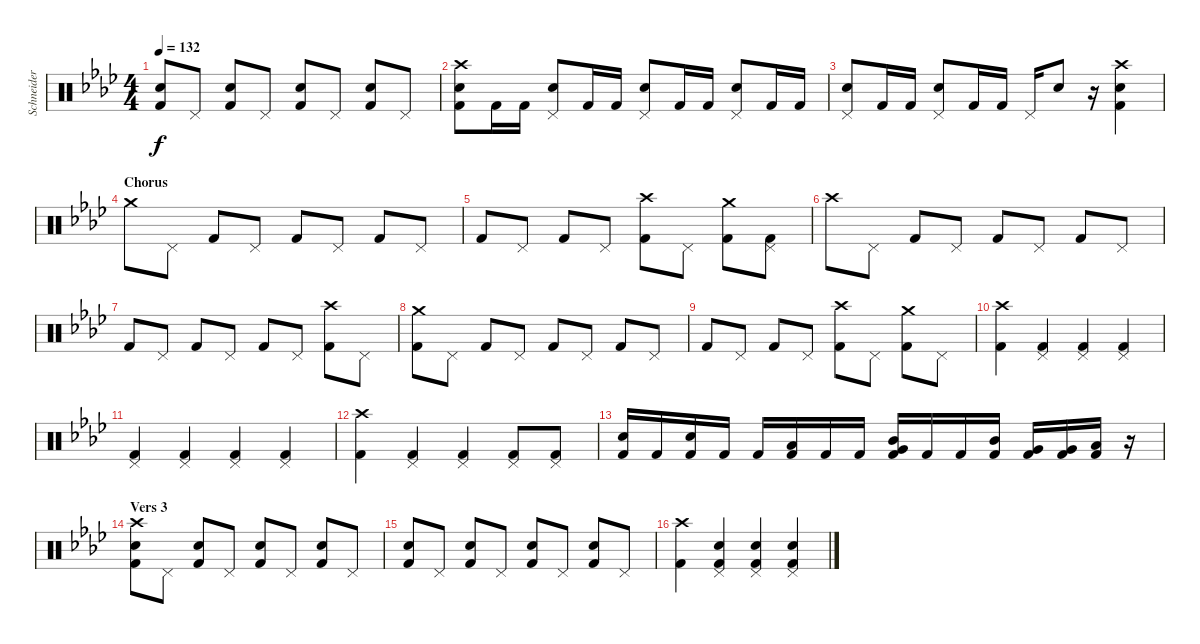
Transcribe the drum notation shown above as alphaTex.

\track ("Schneider" "Schneider") {instrument percussion}
\staff {score}
\articulation defaults
\ts (4 4)
\tempo 132
\clef neutral
\ks fminor
("Snare (hit) 2" "Kick (hit) 2").8{dy f} "Pedal Hi-Hat (hit)".8 ("Snare (hit) 2" "Kick (hit) 2").8 "Pedal Hi-Hat (hit)".8 ("Snare (hit) 2" "Kick (hit) 2").8 "Pedal Hi-Hat (hit)".8 ("Snare (hit) 2" "Kick (hit) 2").8 "Pedal Hi-Hat (hit)".8 |
("Crash high (hit)" "Snare (hit) 2" "Kick (hit) 2").8 "Kick (hit) 2".16 "Kick (hit) 2".16 ("Pedal Hi-Hat (hit)" "Snare (hit) 2").8 "Kick (hit) 2".16 "Kick (hit) 2".16 ("Pedal Hi-Hat (hit)" "Snare (hit) 2").8 "Kick (hit) 2".16 "Kick (hit) 2".16 ("Pedal Hi-Hat (hit)" "Snare (hit) 2").8 "Kick (hit) 2".16 "Kick (hit) 2".16 |
("Pedal Hi-Hat (hit)" "Snare (hit) 2").8 "Kick (hit) 2".16 "Kick (hit) 2".16 ("Pedal Hi-Hat (hit)" "Snare (hit) 2").8 "Kick (hit) 2".16 "Kick (hit) 2".16 "Pedal Hi-Hat (hit)".16 "Snare (hit) 2".8 r.16 ("Crash high (hit)" "Snare (hit) 2" "Kick (hit) 2").4 |
\section ("" "Chorus")
"Crash medium (hit)".8 "Pedal Hi-Hat (hit)".8 "Kick (hit) 2".8 "Pedal Hi-Hat (hit)".8 "Kick (hit) 2".8 "Pedal Hi-Hat (hit)".8 "Kick (hit) 2".8 "Pedal Hi-Hat (hit)".8 |
"Kick (hit) 2".8 "Pedal Hi-Hat (hit)".8 "Kick (hit) 2".8 "Pedal Hi-Hat (hit)".8 ("Crash high (hit)" "Kick (hit) 2").8 "Pedal Hi-Hat (hit)".8 ("Crash medium (hit)" "Kick (hit) 2").8 ("Pedal Hi-Hat (hit)" "Kick (hit) 2").8 |
"Crash high (hit)".8 "Pedal Hi-Hat (hit)".8 "Kick (hit) 2".8 "Pedal Hi-Hat (hit)".8 "Kick (hit) 2".8 "Pedal Hi-Hat (hit)".8 "Kick (hit) 2".8 "Pedal Hi-Hat (hit)".8 |
"Kick (hit) 2".8 "Pedal Hi-Hat (hit)".8 "Kick (hit) 2".8 "Pedal Hi-Hat (hit)".8 "Kick (hit) 2".8 "Pedal Hi-Hat (hit)".8 ("Crash high (hit)" "Kick (hit) 2").8 "Pedal Hi-Hat (hit)".8 |
("Crash medium (hit)" "Kick (hit) 2").8 "Pedal Hi-Hat (hit)".8 "Kick (hit) 2".8 "Pedal Hi-Hat (hit)".8 "Kick (hit) 2".8 "Pedal Hi-Hat (hit)".8 "Kick (hit) 2".8 "Pedal Hi-Hat (hit)".8 |
"Kick (hit) 2".8 "Pedal Hi-Hat (hit)".8 "Kick (hit) 2".8 "Pedal Hi-Hat (hit)".8 ("Crash high (hit)" "Kick (hit) 2").8 "Pedal Hi-Hat (hit)".8 ("Crash medium (hit)" "Kick (hit) 2").8 "Pedal Hi-Hat (hit)".8 |
("Crash high (hit)" "Kick (hit) 2").4 ("Pedal Hi-Hat (hit)" "Kick (hit) 2").4 ("Pedal Hi-Hat (hit)" "Kick (hit) 2").4 ("Pedal Hi-Hat (hit)" "Kick (hit) 2").4 |
("Pedal Hi-Hat (hit)" "Kick (hit) 2").4 ("Pedal Hi-Hat (hit)" "Kick (hit) 2").4 ("Pedal Hi-Hat (hit)" "Kick (hit) 2").4 ("Pedal Hi-Hat (hit)" "Kick (hit) 2").4 |
("Crash high (hit)" "Kick (hit) 2").4 ("Pedal Hi-Hat (hit)" "Kick (hit) 2").4 ("Pedal Hi-Hat (hit)" "Kick (hit) 2").4 ("Pedal Hi-Hat (hit)" "Kick (hit) 2").8 ("Pedal Hi-Hat (hit)" "Kick (hit) 2").8 |
("Snare (hit) 2" "Kick (hit) 2").16 "Kick (hit) 2".16 ("Snare (hit) 2" "Kick (hit) 2").16 "Kick (hit) 2".16 "Kick (hit) 2".16 ("Low Tom (hit)" "Kick (hit) 2").16 "Kick (hit) 2".16 "Kick (hit) 2".16 ("Mid Tom (hit)" "Very Low Tom (hit)" "Kick (hit) 2").16 "Kick (hit) 2".16 "Kick (hit) 2".16 ("Mid Tom (hit)" "Kick (hit) 2").16 ("Very Low Tom (hit)" "Kick (hit) 2").16 ("Very Low Tom (hit)" "Kick (hit) 2").16 ("Low Floor Tom (hit)" "Kick (hit) 2").16 r.16 |
\section ("" "Vers 3")
("Crash high (hit)" "Snare (hit) 2" "Kick (hit) 2").8 "Pedal Hi-Hat (hit)".8 ("Snare (hit) 2" "Kick (hit) 2").8 "Pedal Hi-Hat (hit)".8 ("Snare (hit) 2" "Kick (hit) 2").8 "Pedal Hi-Hat (hit)".8 ("Snare (hit) 2" "Kick (hit) 2").8 "Pedal Hi-Hat (hit)".8 |
("Snare (hit) 2" "Kick (hit) 2").8 "Pedal Hi-Hat (hit)".8 ("Snare (hit) 2" "Kick (hit) 2").8 "Pedal Hi-Hat (hit)".8 ("Snare (hit) 2" "Kick (hit) 2").8 "Pedal Hi-Hat (hit)".8 ("Snare (hit) 2" "Kick (hit) 2").8 "Pedal Hi-Hat (hit)".8 |
("Crash high (hit)" "Kick (hit) 2").4 ("Pedal Hi-Hat (hit)" "Snare (hit) 2" "Kick (hit) 2").4 ("Pedal Hi-Hat (hit)" "Snare (hit) 2" "Kick (hit) 2").4 ("Pedal Hi-Hat (hit)" "Snare (hit) 2" "Kick (hit) 2").4
